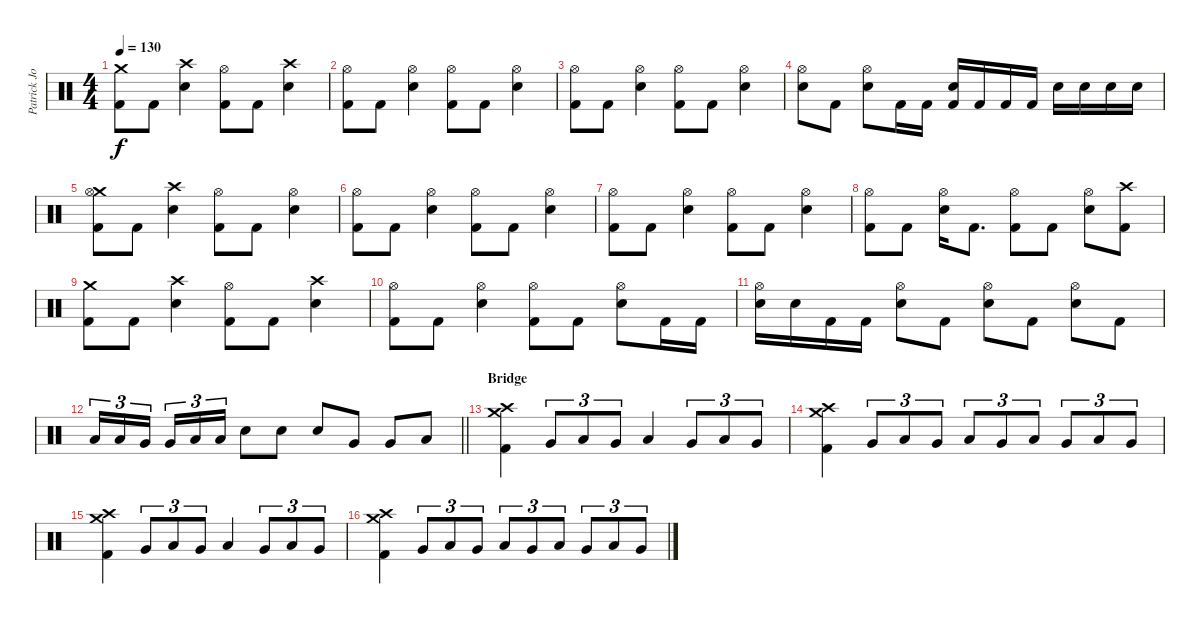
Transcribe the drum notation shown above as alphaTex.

\track ("Patrick Johansson " "Patrick Jo") {instrument percussion}
\staff {score}
\articulation defaults
\ts (4 4)
\tempo 130
\clef neutral
\ks c
("Crash medium (hit)" "Kick (hit) 2").8{dy f} "Kick (hit) 2".8 ("Crash high (hit)" "Snare (hit) 2").4 ("Hi-Hat (open)" "Kick (hit) 2").8 "Kick (hit) 2".8 ("Crash high (hit)" "Snare (hit) 2").4 |
("Hi-Hat (open)" "Kick (hit) 2").8 "Kick (hit) 2".8 ("Hi-Hat (open)" "Snare (hit) 2").4 ("Hi-Hat (open)" "Kick (hit) 2").8 "Kick (hit) 2".8 ("Hi-Hat (open)" "Snare (hit) 2").4 |
("Hi-Hat (open)" "Kick (hit) 2").8 "Kick (hit) 2".8 ("Hi-Hat (open)" "Snare (hit) 2").4 ("Hi-Hat (open)" "Kick (hit) 2").8 "Kick (hit) 2".8 ("Hi-Hat (open)" "Snare (hit) 2").4 |
("Hi-Hat (open)" "Snare (hit) 2").8 "Kick (hit) 2".8 ("Hi-Hat (open)" "Snare (hit) 2").8 "Kick (hit) 2".16 "Kick (hit) 2".16 ("Snare (hit) 2" "Kick (hit) 2").16 "Kick (hit) 2".16 "Kick (hit) 2".16 "Kick (hit) 2".16 "Snare (hit) 2".16 "Snare (hit) 2".16 "Snare (hit) 2".16 "Snare (hit) 2".16 |
("Crash medium (hit)" "Hi-Hat (open)" "Kick (hit) 2").8 "Kick (hit) 2".8 ("Crash high (hit)" "Snare (hit) 2").4 ("Hi-Hat (open)" "Kick (hit) 2").8 "Kick (hit) 2".8 ("Hi-Hat (open)" "Snare (hit) 2").4 |
("Hi-Hat (open)" "Kick (hit) 2").8 "Kick (hit) 2".8 ("Hi-Hat (open)" "Snare (hit) 2").4 ("Hi-Hat (open)" "Kick (hit) 2").8 "Kick (hit) 2".8 ("Hi-Hat (open)" "Snare (hit) 2").4 |
("Hi-Hat (open)" "Kick (hit) 2").8 "Kick (hit) 2".8 ("Hi-Hat (open)" "Snare (hit) 2").4 ("Hi-Hat (open)" "Kick (hit) 2").8 "Kick (hit) 2".8 ("Hi-Hat (open)" "Snare (hit) 2").4 |
("Hi-Hat (open)" "Kick (hit) 2").8 "Kick (hit) 2".8 ("Hi-Hat (open)" "Snare (hit) 2").16 "Kick (hit) 2".8{d} ("Hi-Hat (open)" "Kick (hit) 2").8 "Kick (hit) 2".8 ("Hi-Hat (open)" "Snare (hit) 2").8 ("Crash high (hit)" "Kick (hit) 2").8 |
("Crash medium (hit)" "Kick (hit) 2").8 "Kick (hit) 2".8 ("Crash high (hit)" "Snare (hit) 2").4 ("Hi-Hat (open)" "Kick (hit) 2").8 "Kick (hit) 2".8 ("Crash high (hit)" "Snare (hit) 2").4 |
("Hi-Hat (open)" "Kick (hit) 2").8 "Kick (hit) 2".8 ("Hi-Hat (open)" "Snare (hit) 2").4 ("Hi-Hat (open)" "Kick (hit) 2").8 "Kick (hit) 2".8 ("Hi-Hat (open)" "Snare (hit) 2").8 "Kick (hit) 2".16 "Kick (hit) 2".16 |
("Hi-Hat (open)" "Snare (hit) 2").16 "Snare (hit) 2".16 "Kick (hit) 2".16 "Kick (hit) 2".16 ("Hi-Hat (open)" "Snare (hit) 2").8 "Kick (hit) 2".8 ("Hi-Hat (open)" "Snare (hit) 2").8 "Kick (hit) 2".8 ("Hi-Hat (open)" "Snare (hit) 2").8 "Kick (hit) 2".8 |
\barLineRight lightlight "Low Tom (hit)".16{tu (3 2)} "Low Tom (hit)".16{tu (3 2)} "Very Low Tom (hit)".16{tu (3 2) beam splitsecondary} "Very Low Tom (hit)".16{tu (3 2)} "Low Floor Tom (hit)".16{tu (3 2)} "Low Floor Tom (hit)".16{tu (3 2)} "Snare (hit) 2".8 "Snare (hit) 2".8 "Snare (hit) 2".8 "Very Low Tom (hit)".8 "Very Low Tom (hit)".8 "Low Floor Tom (hit)".8
|
\section ("" "Bridge")
("Crash medium (hit)" "Crash high (hit)" "Kick (hit) 2").4 "Very Low Tom (hit)".8{tu (3 2)} "Low Floor Tom (hit)".8{tu (3 2)} "Very Low Tom (hit)".8{tu (3 2)} "Low Floor Tom (hit)".4 "Very Low Tom (hit)".8{tu (3 2)} "Low Floor Tom (hit)".8{tu (3 2)} "Very Low Tom (hit)".8{tu (3 2)} |
("Crash medium (hit)" "Crash high (hit)" "Kick (hit) 2").4 "Very Low Tom (hit)".8{tu (3 2)} "Low Floor Tom (hit)".8{tu (3 2)} "Very Low Tom (hit)".8{tu (3 2)} "Low Floor Tom (hit)".8{tu (3 2)} "Very Low Tom (hit)".8{tu (3 2)} "Low Floor Tom (hit)".8{tu (3 2)} "Very Low Tom (hit)".8{tu (3 2)} "Low Floor Tom (hit)".8{tu (3 2)} "Very Low Tom (hit)".8{tu (3 2)} |
("Crash medium (hit)" "Crash high (hit)" "Kick (hit) 2").4 "Very Low Tom (hit)".8{tu (3 2)} "Low Floor Tom (hit)".8{tu (3 2)} "Very Low Tom (hit)".8{tu (3 2)} "Low Floor Tom (hit)".4 "Very Low Tom (hit)".8{tu (3 2)} "Low Floor Tom (hit)".8{tu (3 2)} "Very Low Tom (hit)".8{tu (3 2)} |
("Crash medium (hit)" "Crash high (hit)" "Kick (hit) 2").4 "Very Low Tom (hit)".8{tu (3 2)} "Low Floor Tom (hit)".8{tu (3 2)} "Very Low Tom (hit)".8{tu (3 2)} "Low Floor Tom (hit)".8{tu (3 2)} "Very Low Tom (hit)".8{tu (3 2)} "Low Floor Tom (hit)".8{tu (3 2)} "Very Low Tom (hit)".8{tu (3 2)} "Low Floor Tom (hit)".8{tu (3 2)} "Very Low Tom (hit)".8{tu (3 2)}
